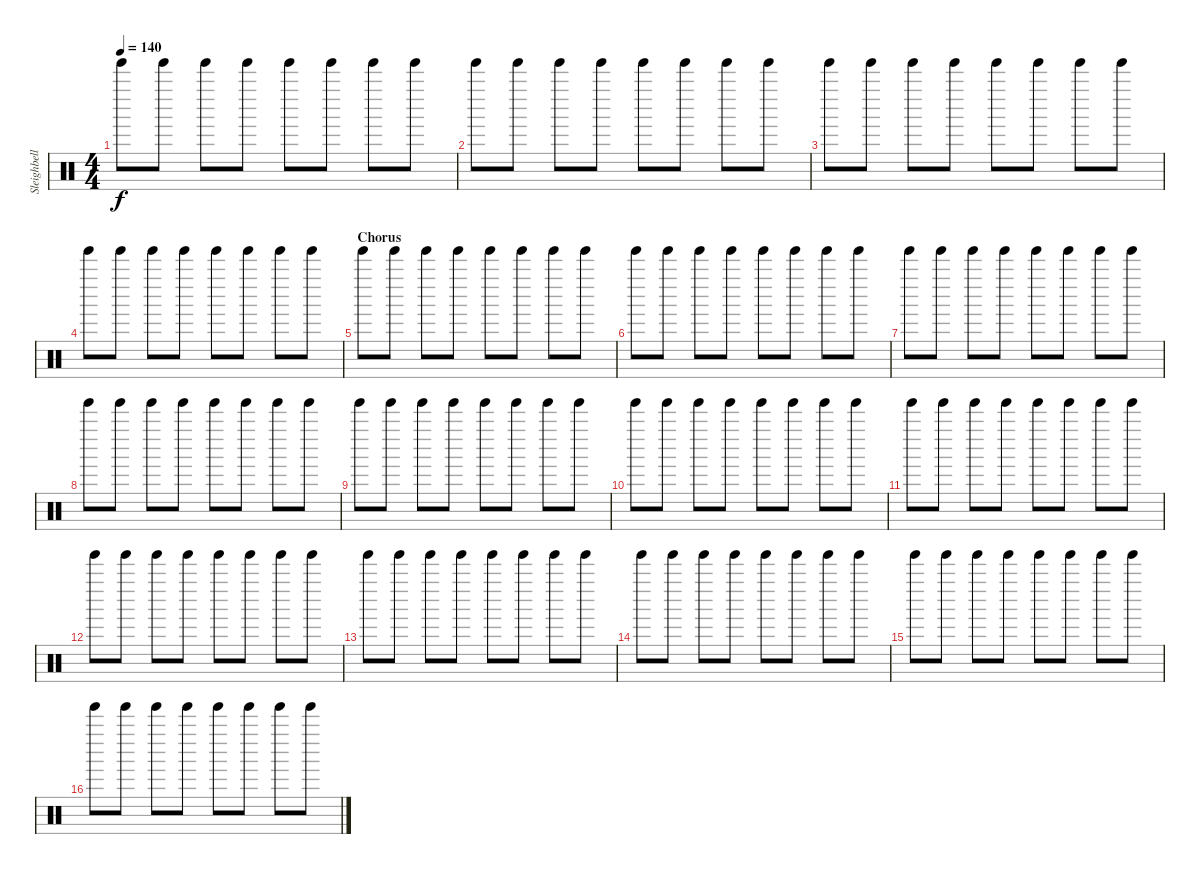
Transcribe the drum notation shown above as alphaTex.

\track ("Sleighbells" "Sleighbell") {instrument percussion}
\staff {score}
\articulation defaults
\ts (4 4)
\tempo 140
\clef neutral
\ks c "Tinkle Bell (hit)".8{dy f} "Tinkle Bell (hit)".8 "Tinkle Bell (hit)".8 "Tinkle Bell (hit)".8 "Tinkle Bell (hit)".8 "Tinkle Bell (hit)".8 "Tinkle Bell (hit)".8 "Tinkle Bell (hit)".8
|
"Tinkle Bell (hit)".8 "Tinkle Bell (hit)".8 "Tinkle Bell (hit)".8 "Tinkle Bell (hit)".8 "Tinkle Bell (hit)".8 "Tinkle Bell (hit)".8 "Tinkle Bell (hit)".8 "Tinkle Bell (hit)".8 |
"Tinkle Bell (hit)".8 "Tinkle Bell (hit)".8 "Tinkle Bell (hit)".8 "Tinkle Bell (hit)".8 "Tinkle Bell (hit)".8 "Tinkle Bell (hit)".8 "Tinkle Bell (hit)".8 "Tinkle Bell (hit)".8 |
"Tinkle Bell (hit)".8 "Tinkle Bell (hit)".8 "Tinkle Bell (hit)".8 "Tinkle Bell (hit)".8 "Tinkle Bell (hit)".8 "Tinkle Bell (hit)".8 "Tinkle Bell (hit)".8 "Tinkle Bell (hit)".8 |
\section ("" "Chorus")
"Tinkle Bell (hit)".8 "Tinkle Bell (hit)".8 "Tinkle Bell (hit)".8 "Tinkle Bell (hit)".8 "Tinkle Bell (hit)".8 "Tinkle Bell (hit)".8 "Tinkle Bell (hit)".8 "Tinkle Bell (hit)".8 |
"Tinkle Bell (hit)".8 "Tinkle Bell (hit)".8 "Tinkle Bell (hit)".8 "Tinkle Bell (hit)".8 "Tinkle Bell (hit)".8 "Tinkle Bell (hit)".8 "Tinkle Bell (hit)".8 "Tinkle Bell (hit)".8 |
"Tinkle Bell (hit)".8 "Tinkle Bell (hit)".8 "Tinkle Bell (hit)".8 "Tinkle Bell (hit)".8 "Tinkle Bell (hit)".8 "Tinkle Bell (hit)".8 "Tinkle Bell (hit)".8 "Tinkle Bell (hit)".8 |
"Tinkle Bell (hit)".8 "Tinkle Bell (hit)".8 "Tinkle Bell (hit)".8 "Tinkle Bell (hit)".8 "Tinkle Bell (hit)".8 "Tinkle Bell (hit)".8 "Tinkle Bell (hit)".8 "Tinkle Bell (hit)".8 |
"Tinkle Bell (hit)".8 "Tinkle Bell (hit)".8 "Tinkle Bell (hit)".8 "Tinkle Bell (hit)".8 "Tinkle Bell (hit)".8 "Tinkle Bell (hit)".8 "Tinkle Bell (hit)".8 "Tinkle Bell (hit)".8 |
"Tinkle Bell (hit)".8 "Tinkle Bell (hit)".8 "Tinkle Bell (hit)".8 "Tinkle Bell (hit)".8 "Tinkle Bell (hit)".8 "Tinkle Bell (hit)".8 "Tinkle Bell (hit)".8 "Tinkle Bell (hit)".8 |
"Tinkle Bell (hit)".8 "Tinkle Bell (hit)".8 "Tinkle Bell (hit)".8 "Tinkle Bell (hit)".8 "Tinkle Bell (hit)".8 "Tinkle Bell (hit)".8 "Tinkle Bell (hit)".8 "Tinkle Bell (hit)".8 |
"Tinkle Bell (hit)".8 "Tinkle Bell (hit)".8 "Tinkle Bell (hit)".8 "Tinkle Bell (hit)".8 "Tinkle Bell (hit)".8 "Tinkle Bell (hit)".8 "Tinkle Bell (hit)".8 "Tinkle Bell (hit)".8 |
"Tinkle Bell (hit)".8 "Tinkle Bell (hit)".8 "Tinkle Bell (hit)".8 "Tinkle Bell (hit)".8 "Tinkle Bell (hit)".8 "Tinkle Bell (hit)".8 "Tinkle Bell (hit)".8 "Tinkle Bell (hit)".8 |
"Tinkle Bell (hit)".8 "Tinkle Bell (hit)".8 "Tinkle Bell (hit)".8 "Tinkle Bell (hit)".8 "Tinkle Bell (hit)".8 "Tinkle Bell (hit)".8 "Tinkle Bell (hit)".8 "Tinkle Bell (hit)".8 |
"Tinkle Bell (hit)".8 "Tinkle Bell (hit)".8 "Tinkle Bell (hit)".8 "Tinkle Bell (hit)".8 "Tinkle Bell (hit)".8 "Tinkle Bell (hit)".8 "Tinkle Bell (hit)".8 "Tinkle Bell (hit)".8 |
"Tinkle Bell (hit)".8 "Tinkle Bell (hit)".8 "Tinkle Bell (hit)".8 "Tinkle Bell (hit)".8 "Tinkle Bell (hit)".8 "Tinkle Bell (hit)".8 "Tinkle Bell (hit)".8 "Tinkle Bell (hit)".8
